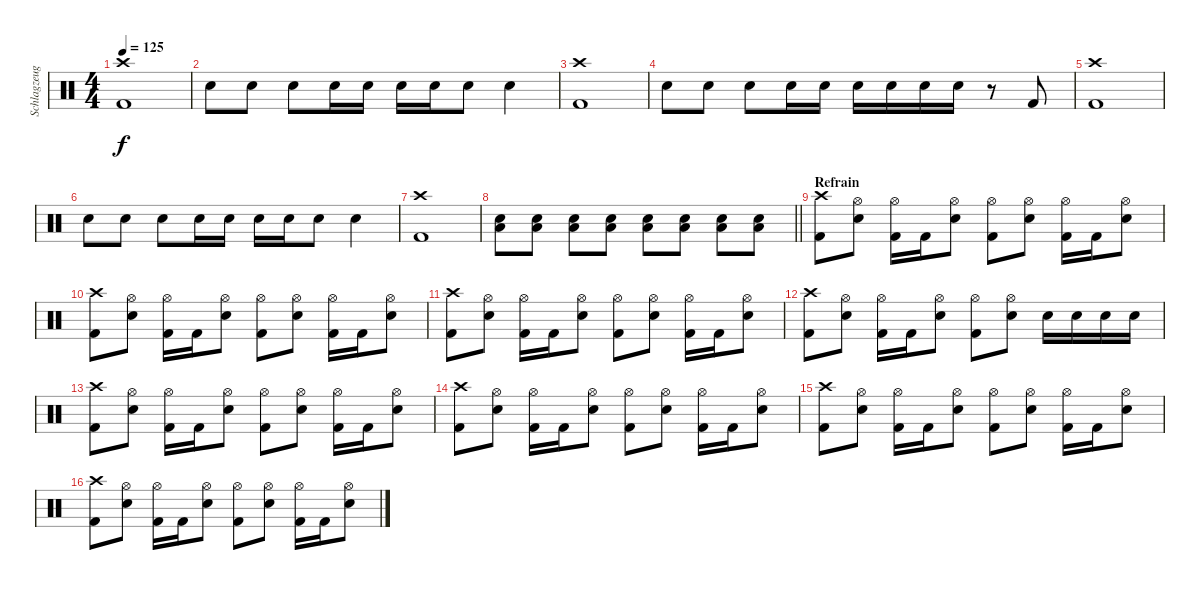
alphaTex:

\track ("Schlagzeug" "Schlagzeug") {instrument percussion}
\staff {score}
\articulation defaults
\ts (4 4)
\tempo 125
\clef neutral
\ks c
("Crash high (hit)" "Kick (hit) 2").1{dy f} |
"Electric Snare (hit)".8 "Electric Snare (hit)".8 "Electric Snare (hit)".8 "Electric Snare (hit)".16 "Electric Snare (hit)".16 "Electric Snare (hit)".16 "Electric Snare (hit)".16 "Electric Snare (hit)".8 "Electric Snare (hit)".4 |
("Crash high (hit)" "Kick (hit) 2").1 |
"Electric Snare (hit)".8 "Electric Snare (hit)".8 "Electric Snare (hit)".8 "Electric Snare (hit)".16 "Electric Snare (hit)".16 "Electric Snare (hit)".16 "Electric Snare (hit)".16 "Electric Snare (hit)".16 "Electric Snare (hit)".16 r.8 "Kick (hit) 2".8 |
("Crash high (hit)" "Kick (hit) 2").1 |
"Electric Snare (hit)".8 "Electric Snare (hit)".8 "Electric Snare (hit)".8 "Electric Snare (hit)".16 "Electric Snare (hit)".16 "Electric Snare (hit)".16 "Electric Snare (hit)".16 "Electric Snare (hit)".8 "Electric Snare (hit)".4 |
("Crash high (hit)" "Kick (hit) 2").1 |
\barLineRight lightlight
("Low Floor Tom (hit)" "Electric Snare (hit)").8 ("Low Floor Tom (hit)" "Electric Snare (hit)").8 ("Low Floor Tom (hit)" "Electric Snare (hit)").8 ("Low Floor Tom (hit)" "Electric Snare (hit)").8 ("Low Floor Tom (hit)" "Electric Snare (hit)").8 ("Low Floor Tom (hit)" "Electric Snare (hit)").8 ("Low Floor Tom (hit)" "Electric Snare (hit)").8 ("Low Floor Tom (hit)" "Electric Snare (hit)").8 |
\section ("" "Refrain")
("Crash high (hit)" "Kick (hit) 2").8 ("Hi-Hat (open)" "Electric Snare (hit)").8 ("Hi-Hat (open)" "Kick (hit) 2").16 "Kick (hit) 2".16 ("Hi-Hat (open)" "Electric Snare (hit)").8 ("Hi-Hat (open)" "Kick (hit) 2").8 ("Hi-Hat (open)" "Electric Snare (hit)").8 ("Hi-Hat (open)" "Kick (hit) 2").16 "Kick (hit) 2".16 ("Hi-Hat (open)" "Electric Snare (hit)").8 |
("Crash high (hit)" "Kick (hit) 2").8 ("Hi-Hat (open)" "Electric Snare (hit)").8 ("Hi-Hat (open)" "Kick (hit) 2").16 "Kick (hit) 2".16 ("Hi-Hat (open)" "Electric Snare (hit)").8 ("Hi-Hat (open)" "Kick (hit) 2").8 ("Hi-Hat (open)" "Electric Snare (hit)").8 ("Hi-Hat (open)" "Kick (hit) 2").16 "Kick (hit) 2".16 ("Hi-Hat (open)" "Electric Snare (hit)").8 |
("Crash high (hit)" "Kick (hit) 2").8 ("Hi-Hat (open)" "Electric Snare (hit)").8 ("Hi-Hat (open)" "Kick (hit) 2").16 "Kick (hit) 2".16 ("Hi-Hat (open)" "Electric Snare (hit)").8 ("Hi-Hat (open)" "Kick (hit) 2").8 ("Hi-Hat (open)" "Electric Snare (hit)").8 ("Hi-Hat (open)" "Kick (hit) 2").16 "Kick (hit) 2".16 ("Hi-Hat (open)" "Electric Snare (hit)").8 |
("Crash high (hit)" "Kick (hit) 2").8 ("Hi-Hat (open)" "Electric Snare (hit)").8 ("Hi-Hat (open)" "Kick (hit) 2").16 "Kick (hit) 2".16 ("Hi-Hat (open)" "Electric Snare (hit)").8 ("Hi-Hat (open)" "Kick (hit) 2").8 ("Hi-Hat (open)" "Electric Snare (hit)").8 "Electric Snare (hit)".16 "Electric Snare (hit)".16 "Electric Snare (hit)".16 "Electric Snare (hit)".16 |
("Crash high (hit)" "Kick (hit) 2").8 ("Hi-Hat (open)" "Electric Snare (hit)").8 ("Hi-Hat (open)" "Kick (hit) 2").16 "Kick (hit) 2".16 ("Hi-Hat (open)" "Electric Snare (hit)").8 ("Hi-Hat (open)" "Kick (hit) 2").8 ("Hi-Hat (open)" "Electric Snare (hit)").8 ("Hi-Hat (open)" "Kick (hit) 2").16 "Kick (hit) 2".16 ("Hi-Hat (open)" "Electric Snare (hit)").8 |
("Crash high (hit)" "Kick (hit) 2").8 ("Hi-Hat (open)" "Electric Snare (hit)").8 ("Hi-Hat (open)" "Kick (hit) 2").16 "Kick (hit) 2".16 ("Hi-Hat (open)" "Electric Snare (hit)").8 ("Hi-Hat (open)" "Kick (hit) 2").8 ("Hi-Hat (open)" "Electric Snare (hit)").8 ("Hi-Hat (open)" "Kick (hit) 2").16 "Kick (hit) 2".16 ("Hi-Hat (open)" "Electric Snare (hit)").8 |
("Crash high (hit)" "Kick (hit) 2").8 ("Hi-Hat (open)" "Electric Snare (hit)").8 ("Hi-Hat (open)" "Kick (hit) 2").16 "Kick (hit) 2".16 ("Hi-Hat (open)" "Electric Snare (hit)").8 ("Hi-Hat (open)" "Kick (hit) 2").8 ("Hi-Hat (open)" "Electric Snare (hit)").8 ("Hi-Hat (open)" "Kick (hit) 2").16 "Kick (hit) 2".16 ("Hi-Hat (open)" "Electric Snare (hit)").8 |
("Crash high (hit)" "Kick (hit) 2").8 ("Hi-Hat (open)" "Electric Snare (hit)").8 ("Hi-Hat (open)" "Kick (hit) 2").16 "Kick (hit) 2".16 ("Hi-Hat (open)" "Electric Snare (hit)").8 ("Hi-Hat (open)" "Kick (hit) 2").8 ("Hi-Hat (open)" "Electric Snare (hit)").8 ("Hi-Hat (open)" "Kick (hit) 2").16 "Kick (hit) 2".16 ("Hi-Hat (open)" "Electric Snare (hit)").8
